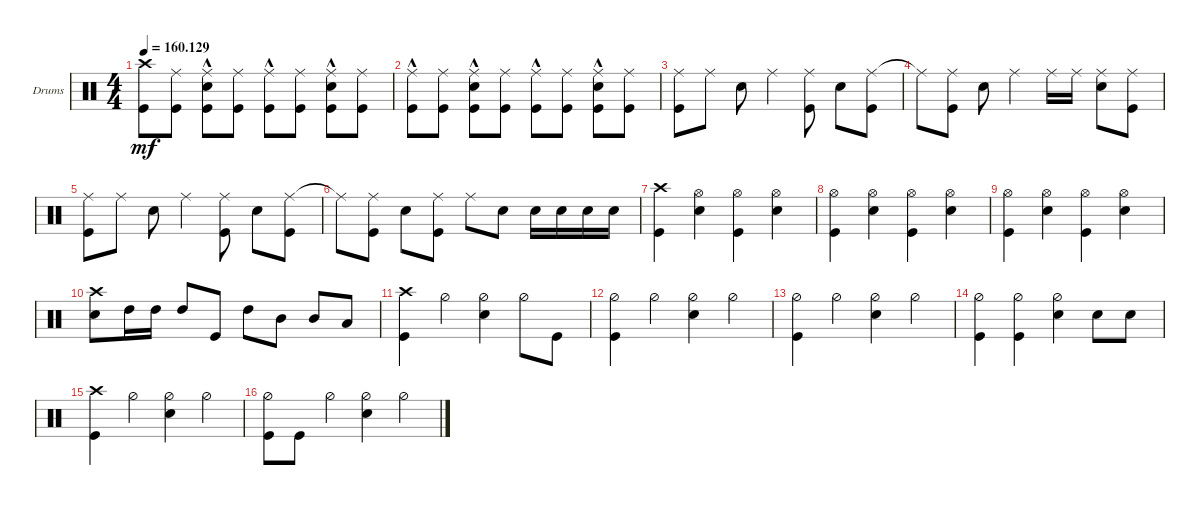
\defaultSystemsLayout 4
\bracketExtendMode groupsimilarinstruments
\firstSystemTrackNameOrientation horizontal
\otherSystemsTrackNameOrientation horizontal
\track ("Drumkit" "Drums") {instrument percussion}
\staff {score}
\articulation defaults
\ts (4 4)
\tempo
160.129
\accidentals auto
\clef neutral
\ottava regular
\simile none
\ks c
("Kick (hit)" "Crash high (hit)").8{dy mf} ("Kick (hit)" "Ride (middle)").8 ("Kick (hit)" "Snare (hit) 2" "Ride (middle)"{hac}).8 ("Kick (hit)" "Ride (middle)").8 ("Kick (hit)" "Ride (middle)"{hac}).8 ("Kick (hit)" "Ride (middle)").8 ("Kick (hit)" "Snare (hit) 2" "Ride (middle)"{hac}).8 ("Kick (hit)" "Ride (middle)").8 |
("Kick (hit)" "Ride (middle)"{hac}).8 ("Kick (hit)" "Ride (middle)").8 ("Kick (hit)" "Snare (hit) 2" "Ride (middle)"{hac}).8 ("Kick (hit)" "Ride (middle)").8 ("Kick (hit)" "Ride (middle)"{hac}).8 ("Kick (hit)" "Ride (middle)").8 ("Kick (hit)" "Snare (hit) 2" "Ride (middle)"{hac}).8 ("Kick (hit)" "Ride (middle)").8 |
("Kick (hit)" "Ride (middle)").8 "Ride (middle)".8 "Snare (hit) 2".8 "Ride (middle)".4 ("Kick (hit)" "Ride (middle)").8 "Snare (hit) 2".8 ("Ride (middle)" "Kick (hit)").8 |
"Ride (middle)"{t}.8 ("Ride (middle)" "Kick (hit)").8 "Snare (hit) 2".8 "Ride (middle)".4 "Ride (middle)".16 "Ride (middle)".16 ("Ride (middle)" "Snare (hit) 2").8 ("Kick (hit)" "Ride (middle)").8 |
("Kick (hit)" "Ride (middle)").8 "Ride (middle)".8 "Snare (hit) 2".8 "Ride (middle)".4 ("Kick (hit)" "Ride (middle)").8 "Snare (hit) 2".8 ("Ride (middle)" "Kick (hit)").8 |
"Ride (middle)"{t}.8 ("Ride (middle)" "Kick (hit)").8 "Snare (hit) 2".8 ("Ride (middle)" "Kick (hit)").8 "Ride (middle)".8 "Snare (hit) 2".8 "Snare (hit) 2".16 "Snare (hit) 2".16 "Snare (hit) 2".16 "Snare (hit) 2".16 |
("Kick (hit)" "Crash high (hit)").4 ("Hi-Hat (open)" "Snare (hit) 2").4 ("Hi-Hat (open)" "Kick (hit)").4 ("Hi-Hat (open)" "Snare (hit) 2").4 |
("Kick (hit)" "Hi-Hat (open)").4 ("Snare (hit) 2" "Hi-Hat (open)").4 ("Kick (hit)" "Hi-Hat (open)").4 ("Snare (hit) 2" "Hi-Hat (open)").4 |
("Kick (hit)" "Hi-Hat (open)").4 ("Snare (hit) 2" "Hi-Hat (open)").4 ("Kick (hit)" "Hi-Hat (open)").4 ("Snare (hit) 2" "Hi-Hat (open)").4 |
("Crash high (hit)" "Snare (hit) 2").8 "High Tom (hit)".16 "High Tom (hit)".16 "High Tom (hit)".8 "Kick (hit)".8 "High Tom (hit)".8 "Mid Tom (hit)".8 "Mid Tom (hit)".8 "Low Tom (hit)".8 |
("Kick (hit)" "Crash high (hit)").4 "Hi-Hat (half)".4 ("Hi-Hat (half)" "Snare (hit) 2").4 "Hi-Hat (half)".8 "Kick (hit)".8 |
("Hi-Hat (half)" "Kick (hit)").4 "Hi-Hat (half)".4 ("Hi-Hat (half)" "Snare (hit) 2").4 "Hi-Hat (half)".4 |
("Hi-Hat (half)" "Kick (hit)").4 "Hi-Hat (half)".4 ("Hi-Hat (half)" "Snare (hit) 2").4 "Hi-Hat (half)".4 |
("Hi-Hat (half)" "Kick (hit)").4 ("Hi-Hat (half)" "Kick (hit)").4 ("Hi-Hat (half)" "Snare (hit) 2").4 "Snare (hit) 2".8 "Snare (hit) 2".8 |
("Kick (hit)" "Crash high (hit)").4 "Hi-Hat (half)".4 ("Hi-Hat (half)" "Snare (hit) 2").4 "Hi-Hat (half)".4 |
("Hi-Hat (half)" "Kick (hit)").8 "Kick (hit)".8 "Hi-Hat (half)".4 ("Hi-Hat (half)" "Snare (hit) 2").4 "Hi-Hat (half)".4
